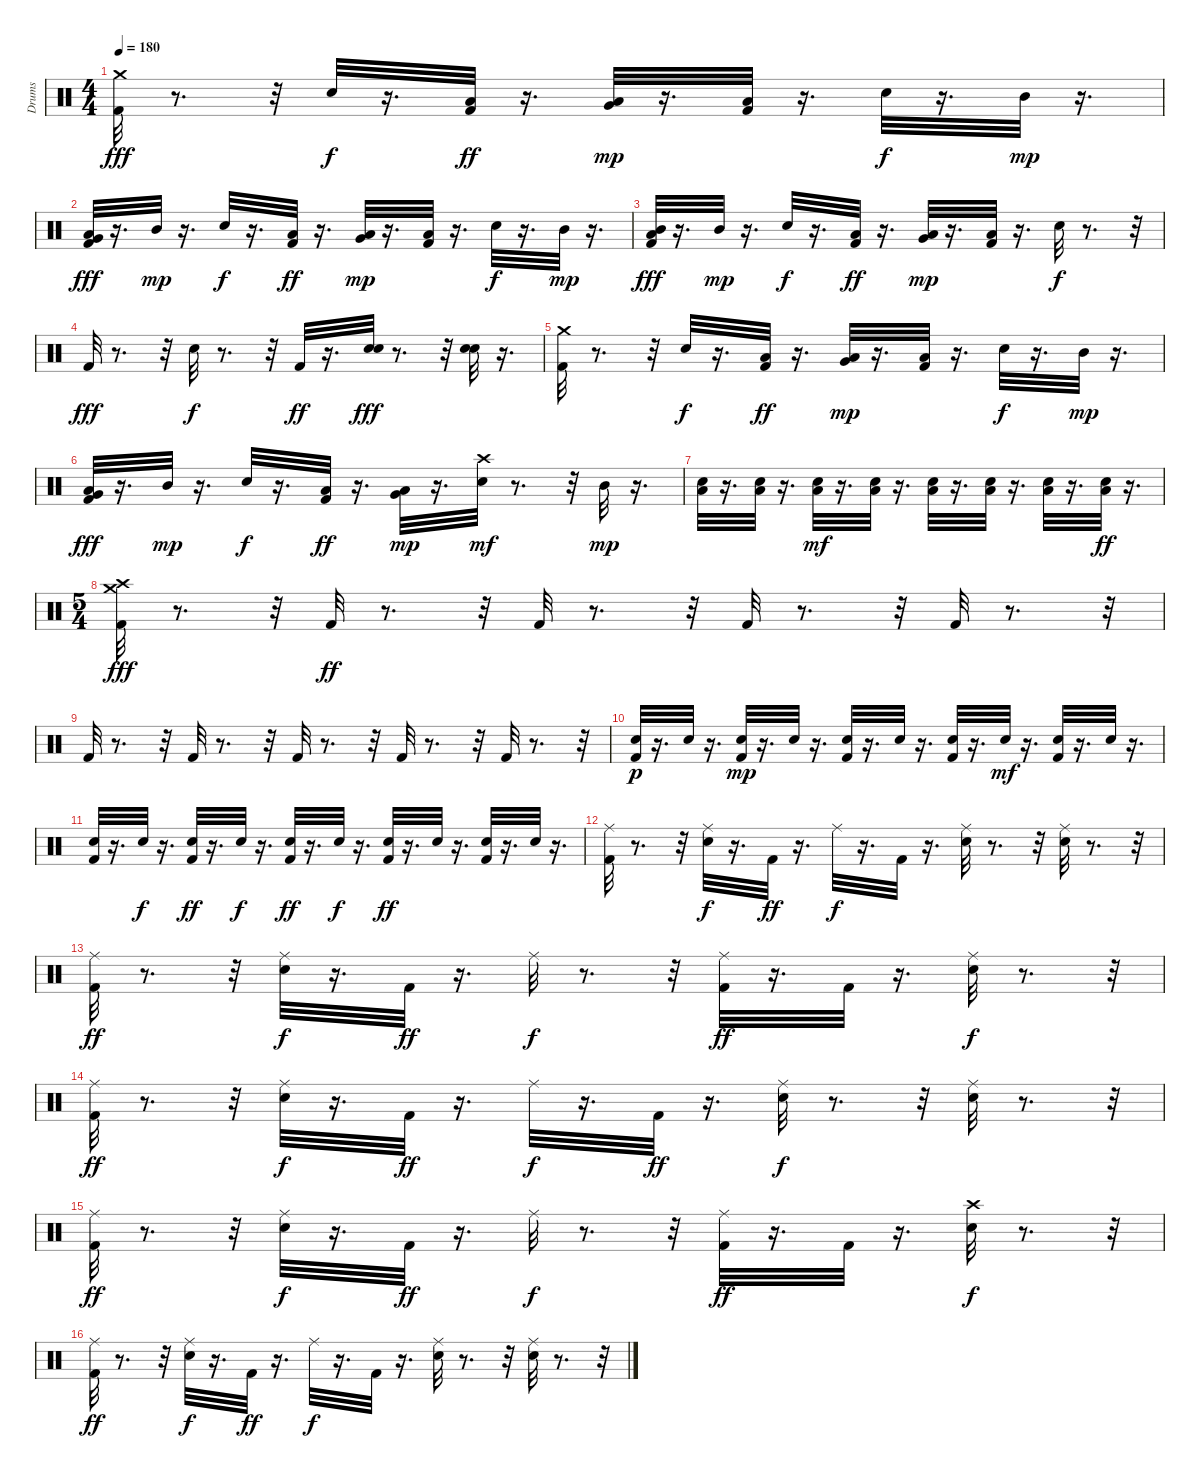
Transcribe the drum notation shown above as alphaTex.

\track ("Drums" "Drums") {instrument percussion}
\staff {score}
\articulation defaults
\ts (4 4)
\tempo 180
\clef neutral
\ks c
("Kick (hit) 2" "Crash medium (hit)").32{dy fff} r.8{d} r.32 "Snare (hit) 2".32{dy f} r.16{d} ("Low Tom (hit)" "Kick (hit) 2").32{dy ff} r.16{d} ("Very Low Tom (hit)" "Low Floor Tom (hit)").32{dy mp} r.16{d} ("Low Tom (hit)" "Kick (hit) 2").32 r.16{d} "Snare (hit) 2".32{dy f} r.16{d} "Mid Tom (hit)".32{dy mp} r.16{d} |
("Low Tom (hit)" "Very Low Tom (hit)" "Kick (hit) 2").32{dy fff} r.16{d} "Mid Tom (hit)".32{dy mp} r.16{d} "Snare (hit) 2".32{dy f} r.16{d} ("Low Tom (hit)" "Kick (hit) 2").32{dy ff} r.16{d} ("Very Low Tom (hit)" "Low Floor Tom (hit)").32{dy mp} r.16{d} ("Low Tom (hit)" "Kick (hit) 2").32 r.16{d} "Snare (hit) 2".32{dy f} r.16{d} "Mid Tom (hit)".32{dy mp} r.16{d} |
("Mid Tom (hit)" "Low Tom (hit)" "Kick (hit) 2").32{dy fff} r.16{d} "Mid Tom (hit)".32{dy mp} r.16{d} "Snare (hit) 2".32{dy f} r.16{d} ("Low Tom (hit)" "Kick (hit) 2").32{dy ff} r.16{d} ("Very Low Tom (hit)" "Low Floor Tom (hit)").32{dy mp} r.16{d} ("Low Tom (hit)" "Kick (hit) 2").32 r.16{d} "Snare (hit) 2".32{dy f} r.8{d} r.32 |
"Kick (hit) 2".32{dy fff} r.8{d} r.32 "Snare (hit) 2".32{dy f} r.8{d} r.32 "Kick (hit) 2".32{dy ff} r.16{d} ("Electric Snare (hit)" "Snare (hit) 2").32{dy fff} r.8{d} r.32 ("Electric Snare (hit)" "Snare (hit) 2").32 r.16{d} |
("Kick (hit) 2" "Crash medium (hit)").32 r.8{d} r.32 "Snare (hit) 2".32{dy f} r.16{d} ("Low Tom (hit)" "Kick (hit) 2").32{dy ff} r.16{d} ("Very Low Tom (hit)" "Low Floor Tom (hit)").32{dy mp} r.16{d} ("Low Tom (hit)" "Kick (hit) 2").32 r.16{d} "Snare (hit) 2".32{dy f} r.16{d} "Mid Tom (hit)".32{dy mp} r.16{d} |
("Low Tom (hit)" "Very Low Tom (hit)" "Kick (hit) 2").32{dy fff} r.16{d} "Mid Tom (hit)".32{dy mp} r.16{d} "Snare (hit) 2".32{dy f} r.16{d} ("Low Tom (hit)" "Kick (hit) 2").32{dy ff} r.16{d} ("Very Low Tom (hit)" "Low Floor Tom (hit)").32{dy mp} r.16{d} ("Crash high (hit)" "Snare (hit) 2").32{dy mf} r.8{d} r.32 "Mid Tom (hit)".32{dy mp} r.16{d} |
("Low Floor Tom (hit)" "Snare (hit) 2").32 r.16{d} ("Low Floor Tom (hit)" "Snare (hit) 2").32 r.16{d} ("Low Floor Tom (hit)" "Snare (hit) 2").32{dy mf} r.16{d} ("Low Floor Tom (hit)" "Snare (hit) 2").32 r.16{d} ("Low Floor Tom (hit)" "Snare (hit) 2").32 r.16{d} ("Low Floor Tom (hit)" "Snare (hit) 2").32 r.16{d} ("Low Floor Tom (hit)" "Snare (hit) 2").32 r.16{d} ("Low Floor Tom (hit)" "Snare (hit) 2").32{dy ff} r.16{d} |
\ts (5 4)
("Kick (hit) 2" "Crash medium (hit)" "Crash high (hit)").32{dy fff} r.8{d} r.32 "Kick (hit) 2".32{dy ff} r.8{d} r.32 "Kick (hit) 2".32 r.8{d} r.32 "Kick (hit) 2".32 r.8{d} r.32 "Kick (hit) 2".32 r.8{d} r.32 |
"Kick (hit) 2".32 r.8{d} r.32 "Kick (hit) 2".32 r.8{d} r.32 "Kick (hit) 2".32 r.8{d} r.32 "Kick (hit) 2".32 r.8{d} r.32 "Kick (hit) 2".32 r.8{d} r.32 |
("Kick (hit) 2" "Snare (hit) 2").32{dy p} r.16{d} "Snare (hit) 2".32 r.16{d} ("Kick (hit) 2" "Snare (hit) 2").32{dy mp} r.16{d} "Snare (hit) 2".32 r.16{d} ("Kick (hit) 2" "Snare (hit) 2").32 r.16{d} "Snare (hit) 2".32 r.16{d} ("Kick (hit) 2" "Snare (hit) 2").32 r.16{d} "Snare (hit) 2".32{dy mf} r.16{d} ("Kick (hit) 2" "Snare (hit) 2").32 r.16{d} "Snare (hit) 2".32 r.16{d} |
("Kick (hit) 2" "Snare (hit) 2").32 r.16{d} "Snare (hit) 2".32{dy f} r.16{d} ("Kick (hit) 2" "Snare (hit) 2").32{dy ff} r.16{d} "Snare (hit) 2".32{dy f} r.16{d} ("Kick (hit) 2" "Snare (hit) 2").32{dy ff} r.16{d} "Snare (hit) 2".32{dy f} r.16{d} ("Kick (hit) 2" "Snare (hit) 2").32{dy ff} r.16{d} "Snare (hit) 2".32 r.16{d} ("Kick (hit) 2" "Snare (hit) 2").32 r.16{d} "Snare (hit) 2".32 r.16{d} |
("Ride (middle)" "Kick (hit) 2").32 r.8{d} r.32 ("Ride (middle)" "Snare (hit) 2").32{dy f} r.16{d} "Kick (hit) 2".32{dy ff} r.16{d} "Ride (middle)".32{dy f} r.16{d} "Kick (hit) 2".32 r.16{d} ("Ride (middle)" "Snare (hit) 2").32 r.8{d} r.32 ("Ride (middle)" "Snare (hit) 2").32 r.8{d} r.32 |
("Ride (middle)" "Kick (hit) 2").32{dy ff} r.8{d} r.32 ("Ride (middle)" "Snare (hit) 2").32{dy f} r.16{d} "Kick (hit) 2".32{dy ff} r.16{d} "Ride (middle)".32{dy f} r.8{d} r.32 ("Kick (hit) 2" "Ride (middle)").32{dy ff} r.16{d} "Kick (hit) 2".32 r.16{d} ("Ride (middle)" "Snare (hit) 2").32{dy f} r.8{d} r.32 |
("Ride (middle)" "Kick (hit) 2").32{dy ff} r.8{d} r.32 ("Ride (middle)" "Snare (hit) 2").32{dy f} r.16{d} "Kick (hit) 2".32{dy ff} r.16{d} "Ride (middle)".32{dy f} r.16{d} "Kick (hit) 2".32{dy ff} r.16{d} ("Ride (middle)" "Snare (hit) 2").32{dy f} r.8{d} r.32 ("Ride (middle)" "Snare (hit) 2").32 r.8{d} r.32 |
("Ride (middle)" "Kick (hit) 2").32{dy ff} r.8{d} r.32 ("Ride (middle)" "Snare (hit) 2").32{dy f} r.16{d} "Kick (hit) 2".32{dy ff} r.16{d} "Ride (middle)".32{dy f} r.8{d} r.32 ("Kick (hit) 2" "Ride (middle)").32{dy ff} r.16{d} "Kick (hit) 2".32 r.16{d} ("Crash high (hit)" "Snare (hit) 2").32{dy f} r.8{d} r.32 |
("Ride (middle)" "Kick (hit) 2").32{dy ff} r.8{d} r.32 ("Ride (middle)" "Snare (hit) 2").32{dy f} r.16{d} "Kick (hit) 2".32{dy ff} r.16{d} "Ride (middle)".32{dy f} r.16{d} "Kick (hit) 2".32 r.16{d} ("Ride (middle)" "Snare (hit) 2").32 r.8{d} r.32 ("Ride (middle)" "Snare (hit) 2").32 r.8{d} r.32
